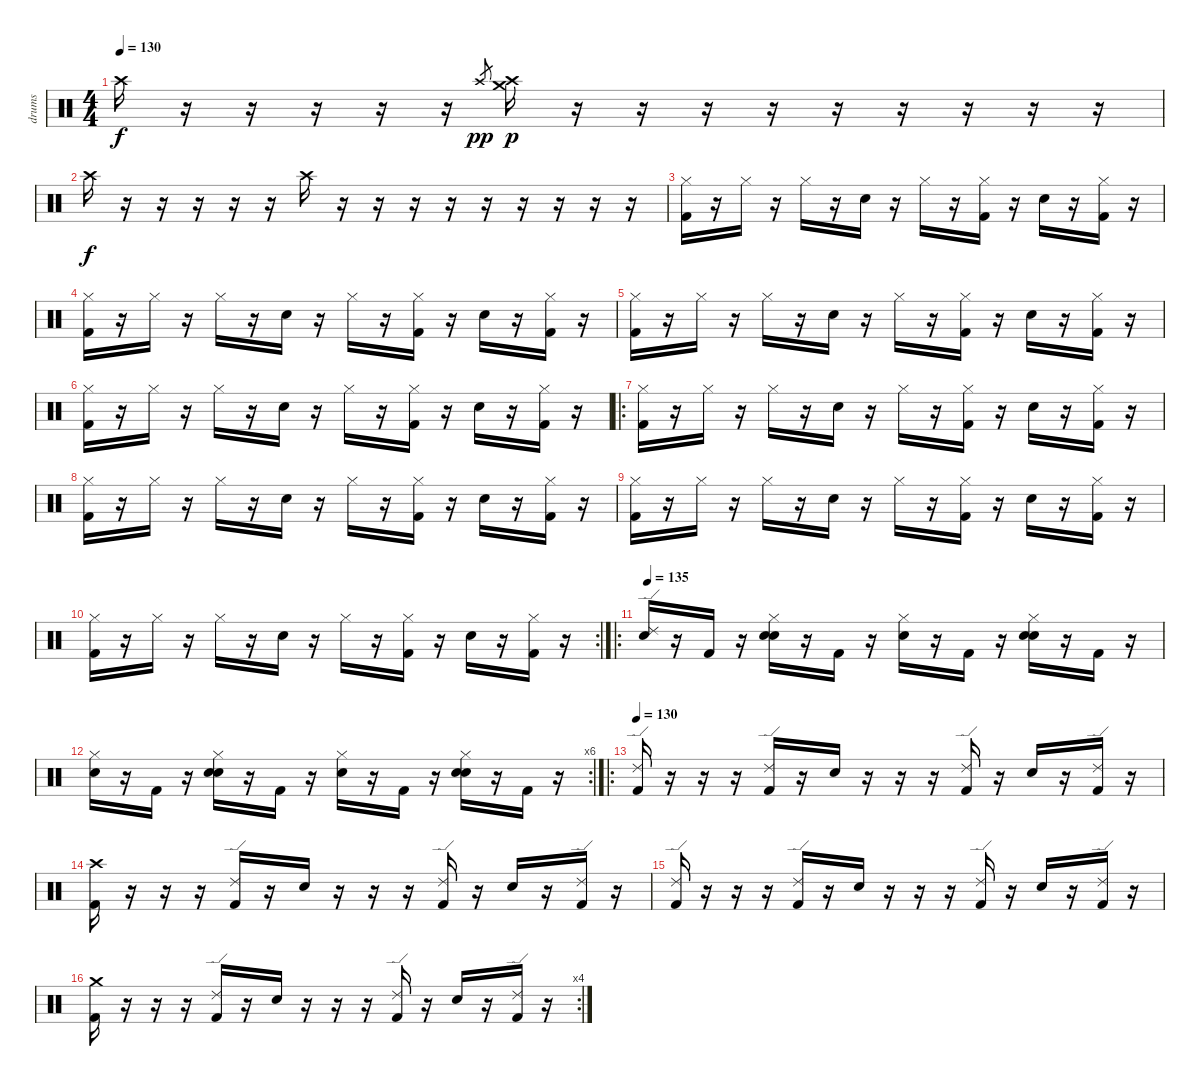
\track ("drums" "drums") {instrument percussion}
\staff {score}
\articulation defaults
\ts (4 4)
\tempo 130
\clef neutral
\ks c "Crash high (hit)".16{dy f}
r.16 r.16 r.16 r.16 r.16 "Crash high (hit)".8{gr dy pp} ("Crash high (hit)" "Crash medium (hit)").16{dy p} r.16 r.16 r.16 r.16 r.16 r.16 r.16 r.16 r.16 |
"Crash high (hit)".16{dy f} r.16 r.16 r.16 r.16 r.16 "Crash high (hit)".16 r.16 r.16 r.16 r.16 r.16 r.16 r.16 r.16 r.16 |
("Kick (hit) 2" "Hi-Hat (closed)").16 r.16 "Hi-Hat (closed)".16 r.16 "Hi-Hat (closed)".16 r.16 "Electric Snare (hit)".16 r.16 "Hi-Hat (closed)".16 r.16 ("Kick (hit) 2" "Hi-Hat (closed)").16 r.16 "Electric Snare (hit)".16 r.16 ("Kick (hit) 2" "Hi-Hat (closed)").16 r.16 |
("Kick (hit) 2" "Hi-Hat (closed)").16 r.16 "Hi-Hat (closed)".16 r.16 "Hi-Hat (closed)".16 r.16 "Electric Snare (hit)".16 r.16 "Hi-Hat (closed)".16 r.16 ("Kick (hit) 2" "Hi-Hat (closed)").16 r.16 "Electric Snare (hit)".16 r.16 ("Kick (hit) 2" "Hi-Hat (closed)").16 r.16 |
("Kick (hit) 2" "Hi-Hat (closed)").16 r.16 "Hi-Hat (closed)".16 r.16 "Hi-Hat (closed)".16 r.16 "Electric Snare (hit)".16 r.16 "Hi-Hat (closed)".16 r.16 ("Kick (hit) 2" "Hi-Hat (closed)").16 r.16 "Electric Snare (hit)".16 r.16 ("Kick (hit) 2" "Hi-Hat (closed)").16 r.16 |
("Kick (hit) 2" "Hi-Hat (closed)").16 r.16 "Hi-Hat (closed)".16 r.16 "Hi-Hat (closed)".16 r.16 "Electric Snare (hit)".16 r.16 "Hi-Hat (closed)".16 r.16 ("Kick (hit) 2" "Hi-Hat (closed)").16 r.16 "Electric Snare (hit)".16 r.16 ("Kick (hit) 2" "Hi-Hat (closed)").16 r.16 |
\ro
("Kick (hit) 2" "Hi-Hat (closed)").16 r.16 "Hi-Hat (closed)".16 r.16 "Hi-Hat (closed)".16 r.16 "Electric Snare (hit)".16 r.16 "Hi-Hat (closed)".16 r.16 ("Kick (hit) 2" "Hi-Hat (closed)").16 r.16 "Electric Snare (hit)".16 r.16 ("Kick (hit) 2" "Hi-Hat (closed)").16 r.16 |
("Kick (hit) 2" "Hi-Hat (closed)").16 r.16 "Hi-Hat (closed)".16 r.16 "Hi-Hat (closed)".16 r.16 "Electric Snare (hit)".16 r.16 "Hi-Hat (closed)".16 r.16 ("Kick (hit) 2" "Hi-Hat (closed)").16 r.16 "Electric Snare (hit)".16 r.16 ("Kick (hit) 2" "Hi-Hat (closed)").16 r.16 |
("Kick (hit) 2" "Hi-Hat (closed)").16 r.16 "Hi-Hat (closed)".16 r.16 "Hi-Hat (closed)".16 r.16 "Electric Snare (hit)".16 r.16 "Hi-Hat (closed)".16 r.16 ("Kick (hit) 2" "Hi-Hat (closed)").16 r.16 "Electric Snare (hit)".16 r.16 ("Kick (hit) 2" "Hi-Hat (closed)").16 r.16 |
\rc 2
("Kick (hit) 2" "Hi-Hat (closed)").16 r.16 "Hi-Hat (closed)".16 r.16 "Hi-Hat (closed)".16 r.16 "Electric Snare (hit)".16 r.16 "Hi-Hat (closed)".16 r.16 ("Kick (hit) 2" "Hi-Hat (closed)").16 r.16 "Electric Snare (hit)".16 r.16 ("Kick (hit) 2" "Hi-Hat (closed)").16 r.16 |
\ro
\tempo 135
("Ride (edge) 2" "Electric Snare (hit)").16 r.16 "Kick (hit) 2".16 r.16 ("Electric Snare (hit)" "Hi-Hat (closed)" "Hand Clap (hit)").16 r.16 "Kick (hit) 2".16 r.16 ("Electric Snare (hit)" "Hi-Hat (closed)").16 r.16 "Kick (hit) 2".16 r.16 ("Electric Snare (hit)" "Hi-Hat (closed)" "Hand Clap (hit)").16 r.16 "Kick (hit) 2".16 r.16 |
\rc 6
("Electric Snare (hit)" "Hi-Hat (closed)").16 r.16 "Kick (hit) 2".16 r.16 ("Electric Snare (hit)" "Hi-Hat (closed)" "Hand Clap (hit)").16 r.16 "Kick (hit) 2".16 r.16 ("Electric Snare (hit)" "Hi-Hat (closed)").16 r.16 "Kick (hit) 2".16 r.16 ("Electric Snare (hit)" "Hi-Hat (closed)" "Hand Clap (hit)").16 r.16 "Kick (hit) 2".16 r.16 |
\ro
\tempo 130
("Kick (hit) 2" "Ride (edge) 2").16 r.16 r.16 r.16 ("Kick (hit) 2" "Ride (edge) 2").16 r.16 "Electric Snare (hit)".16 r.16 r.16 r.16 ("Kick (hit) 2" "Ride (edge) 2").16 r.16 "Electric Snare (hit)".16 r.16 ("Kick (hit) 2" "Ride (edge) 2").16 r.16 |
("Kick (hit) 2" "Crash high (hit)").16 r.16 r.16 r.16 ("Kick (hit) 2" "Ride (edge) 2").16 r.16 "Electric Snare (hit)".16 r.16 r.16 r.16 ("Kick (hit) 2" "Ride (edge) 2").16 r.16 "Electric Snare (hit)".16 r.16 ("Kick (hit) 2" "Ride (edge) 2").16 r.16 |
("Kick (hit) 2" "Ride (edge) 2").16 r.16 r.16 r.16 ("Kick (hit) 2" "Ride (edge) 2").16 r.16 "Electric Snare (hit)".16 r.16 r.16 r.16 ("Kick (hit) 2" "Ride (edge) 2").16 r.16 "Electric Snare (hit)".16 r.16 ("Kick (hit) 2" "Ride (edge) 2").16 r.16 |
\rc 4
("Kick (hit) 2" "Crash medium (hit)").16 r.16 r.16 r.16 ("Kick (hit) 2" "Ride (edge) 2").16 r.16 "Electric Snare (hit)".16 r.16 r.16 r.16 ("Kick (hit) 2" "Ride (edge) 2").16 r.16 "Electric Snare (hit)".16 r.16 ("Kick (hit) 2" "Ride (edge) 2").16 r.16
